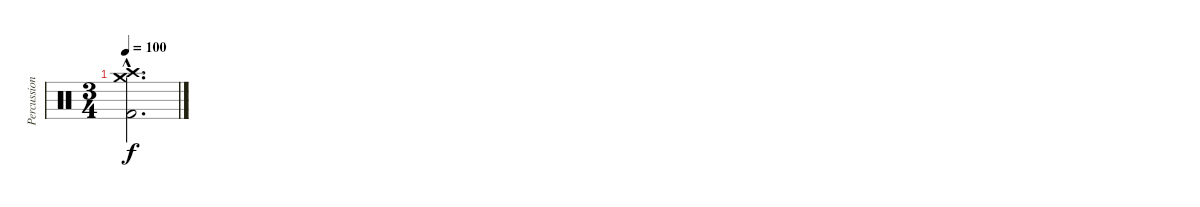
\track ("Percussion" "Percussion") {instrument percussion}
\staff {score}
\articulation defaults
\ts (3 4)
\tempo 100
\clef neutral
\ks c
("Crash medium (hit)"{hac} "Crash high (hit)"{hac} "Kick (hit) 2"{hac}).2{d dy f}
